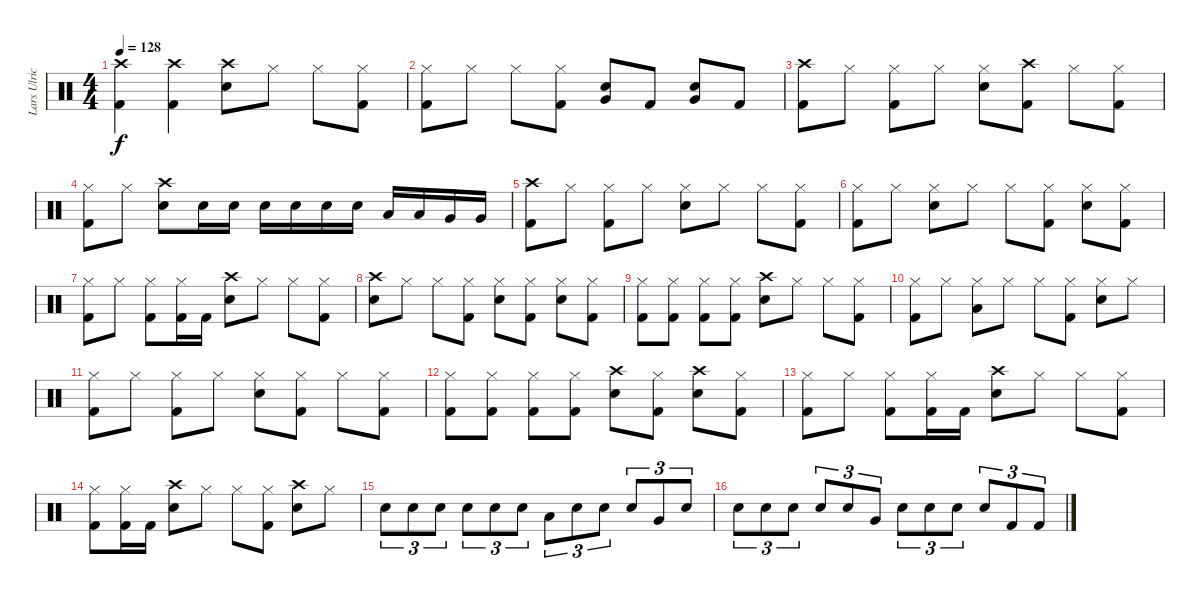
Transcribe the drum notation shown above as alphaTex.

\track ("Lars Ulrich" "Lars Ulric") {instrument percussion}
\staff {score}
\articulation defaults
\ts (4 4)
\tempo 128
\clef neutral
\ks c
("Crash high (hit)" "Kick (hit) 2").4{dy f} ("Crash high (hit)" "Kick (hit) 2").4 ("Crash high (hit)" "Electric Snare (hit)").8 "Hi-Hat (closed)".8 "Hi-Hat (closed)".8 ("Hi-Hat (closed)" "Kick (hit) 2").8 |
("Hi-Hat (closed)" "Kick (hit) 2").8 "Hi-Hat (closed)".8 "Hi-Hat (closed)".8 ("Hi-Hat (closed)" "Kick (hit) 2").8 ("Electric Snare (hit)" "Very Low Tom (hit)").8 "Kick (hit) 2".8 ("Electric Snare (hit)" "Very Low Tom (hit)").8 "Kick (hit) 2".8 |
("Crash high (hit)" "Kick (hit) 2").8 "Hi-Hat (closed)".8 ("Hi-Hat (closed)" "Kick (hit) 2").8 "Hi-Hat (closed)".8 ("Hi-Hat (closed)" "Electric Snare (hit)").8 ("Crash high (hit)" "Kick (hit) 2").8 "Hi-Hat (closed)".8 ("Hi-Hat (closed)" "Kick (hit) 2").8 |
("Hi-Hat (closed)" "Kick (hit) 2").8 "Hi-Hat (closed)".8 ("Crash high (hit)" "Electric Snare (hit)").8 "Electric Snare (hit)".16 "Electric Snare (hit)".16 "Electric Snare (hit)".16 "Electric Snare (hit)".16 "Electric Snare (hit)".16 "Electric Snare (hit)".16 "Low Floor Tom (hit)".16 "Low Floor Tom (hit)".16 "Very Low Tom (hit)".16 "Very Low Tom (hit)".16 |
("Crash high (hit)" "Kick (hit) 2").8 "Hi-Hat (closed)".8 ("Hi-Hat (closed)" "Kick (hit) 2").8 "Hi-Hat (closed)".8 ("Hi-Hat (closed)" "Electric Snare (hit)").8 "Hi-Hat (closed)".8 "Hi-Hat (closed)".8 ("Hi-Hat (closed)" "Kick (hit) 2").8 |
("Hi-Hat (closed)" "Kick (hit) 2").8 "Hi-Hat (closed)".8 ("Hi-Hat (closed)" "Electric Snare (hit)").8 "Hi-Hat (closed)".8 "Hi-Hat (closed)".8 ("Hi-Hat (closed)" "Kick (hit) 2").8 ("Hi-Hat (closed)" "Electric Snare (hit)").8 ("Hi-Hat (closed)" "Kick (hit) 2").8 |
("Hi-Hat (closed)" "Kick (hit) 2").8 "Hi-Hat (closed)".8 ("Hi-Hat (closed)" "Kick (hit) 2").8 ("Hi-Hat (closed)" "Kick (hit) 2").16 "Kick (hit) 2".16 ("Crash high (hit)" "Electric Snare (hit)").8 "Hi-Hat (closed)".8 "Hi-Hat (closed)".8 ("Hi-Hat (closed)" "Kick (hit) 2").8 |
("Crash high (hit)" "Electric Snare (hit)").8 "Hi-Hat (closed)".8 "Hi-Hat (closed)".8 ("Hi-Hat (closed)" "Kick (hit) 2").8 ("Hi-Hat (closed)" "Electric Snare (hit)").8 ("Hi-Hat (closed)" "Kick (hit) 2").8 ("Hi-Hat (closed)" "Electric Snare (hit)").8 ("Hi-Hat (closed)" "Kick (hit) 2").8 |
("Hi-Hat (closed)" "Kick (hit) 2").8 ("Hi-Hat (closed)" "Kick (hit) 2").8 ("Hi-Hat (closed)" "Kick (hit) 2").8 ("Hi-Hat (closed)" "Kick (hit) 2").8 ("Crash high (hit)" "Electric Snare (hit)").8 "Hi-Hat (closed)".8 "Hi-Hat (closed)".8 ("Hi-Hat (closed)" "Kick (hit) 2").8 |
("Hi-Hat (closed)" "Kick (hit) 2").8 "Hi-Hat (closed)".8 ("Hi-Hat (closed)" "Low Floor Tom (hit)").8 "Hi-Hat (closed)".8 "Hi-Hat (closed)".8 ("Hi-Hat (closed)" "Kick (hit) 2").8 ("Hi-Hat (closed)" "Electric Snare (hit)").8 "Hi-Hat (closed)".8 |
("Hi-Hat (closed)" "Kick (hit) 2").8 "Hi-Hat (closed)".8 ("Hi-Hat (closed)" "Kick (hit) 2").8 "Hi-Hat (closed)".8 ("Hi-Hat (closed)" "Electric Snare (hit)").8 ("Hi-Hat (closed)" "Kick (hit) 2").8 "Hi-Hat (closed)".8 ("Hi-Hat (closed)" "Kick (hit) 2").8 |
("Hi-Hat (closed)" "Kick (hit) 2").8 ("Hi-Hat (closed)" "Kick (hit) 2").8 ("Hi-Hat (closed)" "Kick (hit) 2").8 ("Hi-Hat (closed)" "Kick (hit) 2").8 ("Crash high (hit)" "Electric Snare (hit)").8 ("Hi-Hat (closed)" "Kick (hit) 2").8 ("Crash high (hit)" "Electric Snare (hit)").8 ("Hi-Hat (closed)" "Kick (hit) 2").8 |
("Hi-Hat (closed)" "Kick (hit) 2").8 "Hi-Hat (closed)".8 ("Hi-Hat (closed)" "Kick (hit) 2").8 ("Hi-Hat (closed)" "Kick (hit) 2").16 "Kick (hit) 2".16 ("Crash high (hit)" "Electric Snare (hit)").8 "Hi-Hat (closed)".8 "Hi-Hat (closed)".8 ("Hi-Hat (closed)" "Kick (hit) 2").8 |
("Hi-Hat (closed)" "Kick (hit) 2").8 ("Hi-Hat (closed)" "Kick (hit) 2").16 "Kick (hit) 2".16 ("Crash high (hit)" "Electric Snare (hit)").8 "Hi-Hat (closed)".8 "Hi-Hat (closed)".8 ("Hi-Hat (closed)" "Kick (hit) 2").8 ("Crash high (hit)" "Electric Snare (hit)").8 "Hi-Hat (closed)".8 |
"Electric Snare (hit)".8{tu (3 2)} "Electric Snare (hit)".8{tu (3 2)} "Electric Snare (hit)".8{tu (3 2)} "Electric Snare (hit)".8{tu (3 2)} "Electric Snare (hit)".8{tu (3 2)} "Electric Snare (hit)".8{tu (3 2)} "Low Floor Tom (hit)".8{tu (3 2)} "Electric Snare (hit)".8{tu (3 2)} "Electric Snare (hit)".8{tu (3 2)} "Electric Snare (hit)".8{tu (3 2)} "Very Low Tom (hit)".8{tu (3 2)} "Electric Snare (hit)".8{tu (3 2)} |
"Electric Snare (hit)".8{tu (3 2)} "Electric Snare (hit)".8{tu (3 2)} "Electric Snare (hit)".8{tu (3 2)} "Electric Snare (hit)".8{tu (3 2)} "Electric Snare (hit)".8{tu (3 2)} "Very Low Tom (hit)".8{tu (3 2)} "Electric Snare (hit)".8{tu (3 2)} "Electric Snare (hit)".8{tu (3 2)} "Electric Snare (hit)".8{tu (3 2)} "Electric Snare (hit)".8{tu (3 2)} "Kick (hit) 2".8{tu (3 2)} "Kick (hit) 2".8{tu (3 2)}
